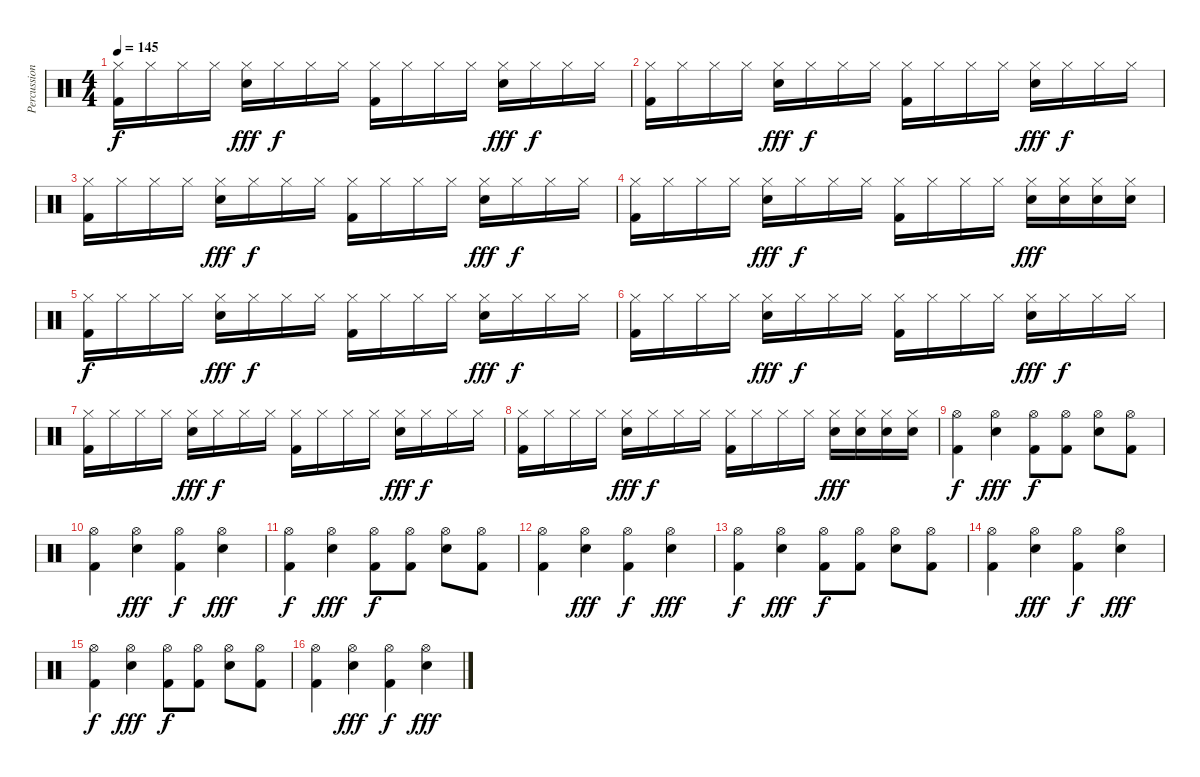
\track ("Percussion" "Percussion") {instrument percussion}
\staff {score}
\articulation defaults
\ts (4 4)
\tempo 145
\clef neutral
\ks c
("Hi-Hat (closed)" "Kick (hit) 2").16{dy f} "Hi-Hat (closed)".16 "Hi-Hat (closed)".16 "Hi-Hat (closed)".16 ("Hi-Hat (closed)" "Snare (hit) 2").16{dy fff} "Hi-Hat (closed)".16{dy f} "Hi-Hat (closed)".16 "Hi-Hat (closed)".16 ("Hi-Hat (closed)" "Kick (hit) 2").16 "Hi-Hat (closed)".16 "Hi-Hat (closed)".16 "Hi-Hat (closed)".16 ("Hi-Hat (closed)" "Snare (hit) 2").16{dy fff} "Hi-Hat (closed)".16{dy f} "Hi-Hat (closed)".16 "Hi-Hat (closed)".16 |
("Hi-Hat (closed)" "Kick (hit) 2").16 "Hi-Hat (closed)".16 "Hi-Hat (closed)".16 "Hi-Hat (closed)".16 ("Hi-Hat (closed)" "Snare (hit) 2").16{dy fff} "Hi-Hat (closed)".16{dy f} "Hi-Hat (closed)".16 "Hi-Hat (closed)".16 ("Hi-Hat (closed)" "Kick (hit) 2").16 "Hi-Hat (closed)".16 "Hi-Hat (closed)".16 "Hi-Hat (closed)".16 ("Hi-Hat (closed)" "Snare (hit) 2").16{dy fff} "Hi-Hat (closed)".16{dy f} "Hi-Hat (closed)".16 "Hi-Hat (closed)".16 |
("Hi-Hat (closed)" "Kick (hit) 2").16 "Hi-Hat (closed)".16 "Hi-Hat (closed)".16 "Hi-Hat (closed)".16 ("Hi-Hat (closed)" "Snare (hit) 2").16{dy fff} "Hi-Hat (closed)".16{dy f} "Hi-Hat (closed)".16 "Hi-Hat (closed)".16 ("Hi-Hat (closed)" "Kick (hit) 2").16 "Hi-Hat (closed)".16 "Hi-Hat (closed)".16 "Hi-Hat (closed)".16 ("Hi-Hat (closed)" "Snare (hit) 2").16{dy fff} "Hi-Hat (closed)".16{dy f} "Hi-Hat (closed)".16 "Hi-Hat (closed)".16 |
("Hi-Hat (closed)" "Kick (hit) 2").16 "Hi-Hat (closed)".16 "Hi-Hat (closed)".16 "Hi-Hat (closed)".16 ("Hi-Hat (closed)" "Snare (hit) 2").16{dy fff} "Hi-Hat (closed)".16{dy f} "Hi-Hat (closed)".16 "Hi-Hat (closed)".16 ("Hi-Hat (closed)" "Kick (hit) 2").16 "Hi-Hat (closed)".16 "Hi-Hat (closed)".16 "Hi-Hat (closed)".16 ("Hi-Hat (closed)" "Snare (hit) 2").16{dy fff} ("Hi-Hat (closed)" "Snare (hit) 2").16 ("Hi-Hat (closed)" "Snare (hit) 2").16 ("Hi-Hat (closed)" "Snare (hit) 2").16 |
("Hi-Hat (closed)" "Kick (hit) 2").16{dy f} "Hi-Hat (closed)".16 "Hi-Hat (closed)".16 "Hi-Hat (closed)".16 ("Hi-Hat (closed)" "Snare (hit) 2").16{dy fff} "Hi-Hat (closed)".16{dy f} "Hi-Hat (closed)".16 "Hi-Hat (closed)".16 ("Hi-Hat (closed)" "Kick (hit) 2").16 "Hi-Hat (closed)".16 "Hi-Hat (closed)".16 "Hi-Hat (closed)".16 ("Hi-Hat (closed)" "Snare (hit) 2").16{dy fff} "Hi-Hat (closed)".16{dy f} "Hi-Hat (closed)".16 "Hi-Hat (closed)".16 |
("Hi-Hat (closed)" "Kick (hit) 2").16 "Hi-Hat (closed)".16 "Hi-Hat (closed)".16 "Hi-Hat (closed)".16 ("Hi-Hat (closed)" "Snare (hit) 2").16{dy fff} "Hi-Hat (closed)".16{dy f} "Hi-Hat (closed)".16 "Hi-Hat (closed)".16 ("Hi-Hat (closed)" "Kick (hit) 2").16 "Hi-Hat (closed)".16 "Hi-Hat (closed)".16 "Hi-Hat (closed)".16 ("Hi-Hat (closed)" "Snare (hit) 2").16{dy fff} "Hi-Hat (closed)".16{dy f} "Hi-Hat (closed)".16 "Hi-Hat (closed)".16 |
("Hi-Hat (closed)" "Kick (hit) 2").16 "Hi-Hat (closed)".16 "Hi-Hat (closed)".16 "Hi-Hat (closed)".16 ("Hi-Hat (closed)" "Snare (hit) 2").16{dy fff} "Hi-Hat (closed)".16{dy f} "Hi-Hat (closed)".16 "Hi-Hat (closed)".16 ("Hi-Hat (closed)" "Kick (hit) 2").16 "Hi-Hat (closed)".16 "Hi-Hat (closed)".16 "Hi-Hat (closed)".16 ("Hi-Hat (closed)" "Snare (hit) 2").16{dy fff} "Hi-Hat (closed)".16{dy f} "Hi-Hat (closed)".16 "Hi-Hat (closed)".16 |
("Hi-Hat (closed)" "Kick (hit) 2").16 "Hi-Hat (closed)".16 "Hi-Hat (closed)".16 "Hi-Hat (closed)".16 ("Hi-Hat (closed)" "Snare (hit) 2").16{dy fff} "Hi-Hat (closed)".16{dy f} "Hi-Hat (closed)".16 "Hi-Hat (closed)".16 ("Hi-Hat (closed)" "Kick (hit) 2").16 "Hi-Hat (closed)".16 "Hi-Hat (closed)".16 "Hi-Hat (closed)".16 ("Hi-Hat (closed)" "Snare (hit) 2").16{dy fff} ("Hi-Hat (closed)" "Snare (hit) 2").16 ("Hi-Hat (closed)" "Snare (hit) 2").16 ("Hi-Hat (closed)" "Snare (hit) 2").16 |
("Hi-Hat (open)" "Kick (hit) 2").4{dy f} ("Hi-Hat (open)" "Snare (hit) 2").4{dy fff} ("Hi-Hat (open)" "Kick (hit) 2").8{dy f} ("Hi-Hat (open)" "Kick (hit) 2").8 ("Hi-Hat (open)" "Snare (hit) 2").8 ("Hi-Hat (open)" "Kick (hit) 2").8 |
("Hi-Hat (open)" "Kick (hit) 2").4 ("Hi-Hat (open)" "Snare (hit) 2").4{dy fff} ("Hi-Hat (open)" "Kick (hit) 2").4{dy f} ("Hi-Hat (open)" "Snare (hit) 2").4{dy fff} |
("Hi-Hat (open)" "Kick (hit) 2").4{dy f} ("Hi-Hat (open)" "Snare (hit) 2").4{dy fff} ("Hi-Hat (open)" "Kick (hit) 2").8{dy f} ("Hi-Hat (open)" "Kick (hit) 2").8 ("Hi-Hat (open)" "Snare (hit) 2").8 ("Hi-Hat (open)" "Kick (hit) 2").8 |
("Hi-Hat (open)" "Kick (hit) 2").4 ("Hi-Hat (open)" "Snare (hit) 2").4{dy fff} ("Hi-Hat (open)" "Kick (hit) 2").4{dy f} ("Hi-Hat (open)" "Snare (hit) 2").4{dy fff} |
("Hi-Hat (open)" "Kick (hit) 2").4{dy f} ("Hi-Hat (open)" "Snare (hit) 2").4{dy fff} ("Hi-Hat (open)" "Kick (hit) 2").8{dy f} ("Hi-Hat (open)" "Kick (hit) 2").8 ("Hi-Hat (open)" "Snare (hit) 2").8 ("Hi-Hat (open)" "Kick (hit) 2").8 |
("Hi-Hat (open)" "Kick (hit) 2").4 ("Hi-Hat (open)" "Snare (hit) 2").4{dy fff} ("Hi-Hat (open)" "Kick (hit) 2").4{dy f} ("Hi-Hat (open)" "Snare (hit) 2").4{dy fff} |
("Hi-Hat (open)" "Kick (hit) 2").4{dy f} ("Hi-Hat (open)" "Snare (hit) 2").4{dy fff} ("Hi-Hat (open)" "Kick (hit) 2").8{dy f} ("Hi-Hat (open)" "Kick (hit) 2").8 ("Hi-Hat (open)" "Snare (hit) 2").8 ("Hi-Hat (open)" "Kick (hit) 2").8 |
("Hi-Hat (open)" "Kick (hit) 2").4 ("Hi-Hat (open)" "Snare (hit) 2").4{dy fff} ("Hi-Hat (open)" "Kick (hit) 2").4{dy f} ("Hi-Hat (open)" "Snare (hit) 2").4{dy fff}
